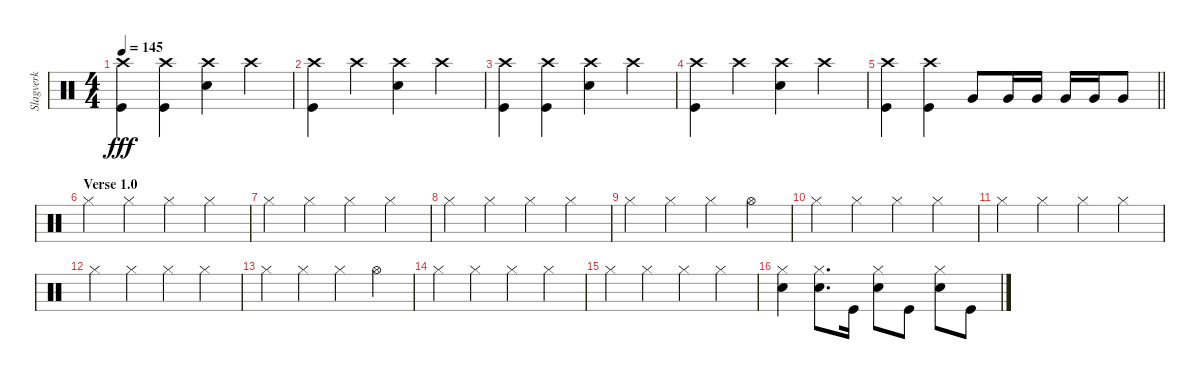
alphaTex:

\track ("Slagverk" "Slagverk") {instrument percussion}
\staff {score}
\articulation defaults
\ts (4 4)
\tempo 145
\clef neutral
\ks c
("Crash high (hit)" "Kick (hit)").4{dy fff} ("Crash high (hit)" "Kick (hit)").4 ("Crash high (hit)" "Snare (hit) 2").4 "Crash high (hit)".4 |
("Crash high (hit)" "Kick (hit)").4 "Crash high (hit)".4 ("Crash high (hit)" "Snare (hit) 2").4 "Crash high (hit)".4 |
("Crash high (hit)" "Kick (hit)").4 ("Crash high (hit)" "Kick (hit)").4 ("Crash high (hit)" "Snare (hit) 2").4 "Crash high (hit)".4 |
("Crash high (hit)" "Kick (hit)").4 "Crash high (hit)".4 ("Crash high (hit)" "Snare (hit) 2").4 "Crash high (hit)".4 |
\barLineRight lightlight
("Crash high (hit)" "Kick (hit)").4 ("Crash high (hit)" "Kick (hit)").4 "Very Low Tom (hit)".8 "Very Low Tom (hit)".16 "Very Low Tom (hit)".16 "Very Low Tom (hit)".16 "Very Low Tom (hit)".16 "Very Low Tom (hit)".8 |
\section ("" "Verse 1.0")
"Hi-Hat (closed)".4 "Hi-Hat (closed)".4 "Hi-Hat (closed)".4 "Hi-Hat (closed)".4 |
"Hi-Hat (closed)".4 "Hi-Hat (closed)".4 "Hi-Hat (closed)".4 "Hi-Hat (closed)".4 |
"Hi-Hat (closed)".4 "Hi-Hat (closed)".4 "Hi-Hat (closed)".4 "Hi-Hat (closed)".4 |
"Hi-Hat (closed)".4 "Hi-Hat (closed)".4 "Hi-Hat (closed)".4 "Hi-Hat (open)".4 |
"Hi-Hat (closed)".4 "Hi-Hat (closed)".4 "Hi-Hat (closed)".4 "Hi-Hat (closed)".4 |
"Hi-Hat (closed)".4 "Hi-Hat (closed)".4 "Hi-Hat (closed)".4 "Hi-Hat (closed)".4 |
"Hi-Hat (closed)".4 "Hi-Hat (closed)".4 "Hi-Hat (closed)".4 "Hi-Hat (closed)".4 |
"Hi-Hat (closed)".4 "Hi-Hat (closed)".4 "Hi-Hat (closed)".4 "Hi-Hat (open)".4 |
"Hi-Hat (closed)".4 "Hi-Hat (closed)".4 "Hi-Hat (closed)".4 "Hi-Hat (closed)".4 |
"Hi-Hat (closed)".4 "Hi-Hat (closed)".4 "Hi-Hat (closed)".4 "Hi-Hat (closed)".4 |
("Snare (hit) 2" "Hi-Hat (closed)").4 ("Snare (hit) 2" "Hi-Hat (closed)").8{d} "Kick (hit)".16 ("Snare (hit) 2" "Hi-Hat (closed)").8 "Kick (hit)".8 ("Snare (hit) 2" "Hi-Hat (closed)").8 "Kick (hit)".8
